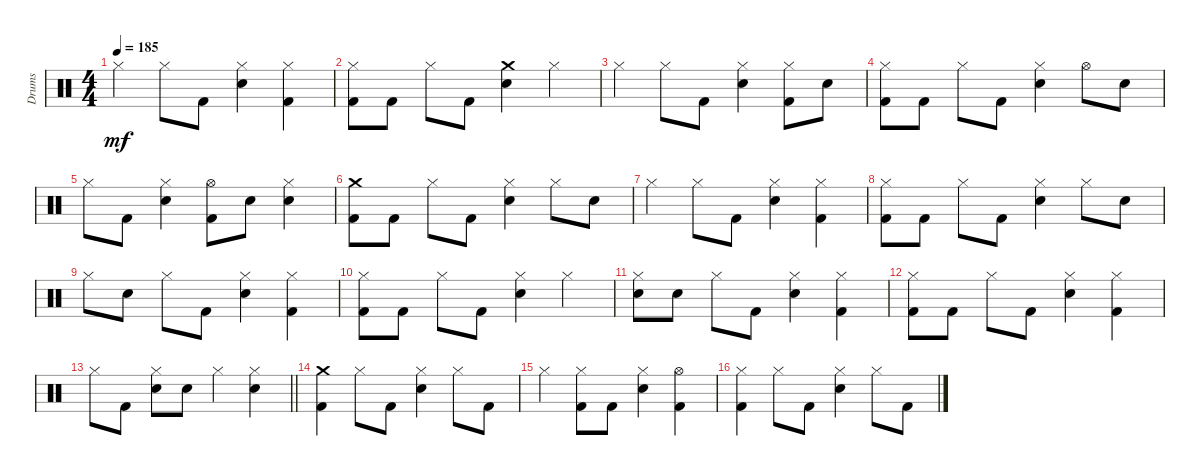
\track ("Drums" "Drums") {instrument percussion}
\staff {score}
\articulation defaults
\ts (4 4)
\tempo 185
\clef neutral
\ks c "Hi-Hat (closed)".4{dy mf} "Hi-Hat (closed)".8 "Kick (hit) 2".8
("Hi-Hat (closed)" "Snare (hit) 2").4 ("Hi-Hat (closed)" "Kick (hit) 2").4 |
("Hi-Hat (closed)" "Kick (hit) 2").8 "Kick (hit) 2".8 "Hi-Hat (closed)".8 "Kick (hit) 2".8 ("Crash medium (hit)" "Snare (hit) 2").4 "Hi-Hat (closed)".4 |
"Hi-Hat (closed)".4 "Hi-Hat (closed)".8 "Kick (hit) 2".8 ("Hi-Hat (closed)" "Snare (hit) 2").4 ("Hi-Hat (closed)" "Kick (hit) 2").8 "Snare (hit) 2".8 |
("Hi-Hat (closed)" "Kick (hit) 2").8 "Kick (hit) 2".8 "Hi-Hat (closed)".8 "Kick (hit) 2".8 ("Hi-Hat (closed)" "Snare (hit) 2").4 "Hi-Hat (open)".8 "Snare (hit) 2".8 |
"Hi-Hat (closed)".8 "Kick (hit) 2".8 ("Hi-Hat (closed)" "Snare (hit) 2").4 ("Hi-Hat (open)" "Kick (hit) 2").8 "Snare (hit) 2".8 ("Hi-Hat (closed)" "Snare (hit) 2").4 |
("Crash medium (hit)" "Kick (hit) 2").8 "Kick (hit) 2".8 "Hi-Hat (closed)".8 "Kick (hit) 2".8 ("Hi-Hat (closed)" "Snare (hit) 2").4 "Hi-Hat (closed)".8 "Snare (hit) 2".8 |
"Hi-Hat (closed)".4 "Hi-Hat (closed)".8 "Kick (hit) 2".8 ("Hi-Hat (closed)" "Snare (hit) 2").4 ("Hi-Hat (closed)" "Kick (hit) 2").4 |
("Hi-Hat (closed)" "Kick (hit) 2").8 "Kick (hit) 2".8 "Hi-Hat (closed)".8 "Kick (hit) 2".8 ("Hi-Hat (closed)" "Snare (hit) 2").4 "Hi-Hat (closed)".8 "Snare (hit) 2".8 |
"Hi-Hat (closed)".8 "Snare (hit) 2".8 "Hi-Hat (closed)".8 "Kick (hit) 2".8 ("Hi-Hat (closed)" "Snare (hit) 2").4 ("Hi-Hat (closed)" "Kick (hit) 2").4 |
("Hi-Hat (closed)" "Kick (hit) 2").8 "Kick (hit) 2".8 "Hi-Hat (closed)".8 "Kick (hit) 2".8 ("Hi-Hat (closed)" "Snare (hit) 2").4 "Hi-Hat (closed)".4 |
("Hi-Hat (closed)" "Snare (hit) 2").8 "Snare (hit) 2".8 "Hi-Hat (closed)".8 "Kick (hit) 2".8 ("Hi-Hat (closed)" "Snare (hit) 2").4 ("Hi-Hat (closed)" "Kick (hit) 2").4 |
("Hi-Hat (closed)" "Kick (hit) 2").8 "Kick (hit) 2".8 "Hi-Hat (closed)".8 "Kick (hit) 2".8 ("Hi-Hat (closed)" "Snare (hit) 2").4 ("Hi-Hat (closed)" "Kick (hit) 2").4 |
\barLineRight lightlight "Hi-Hat (closed)".8 "Kick (hit) 2".8
("Hi-Hat (closed)" "Snare (hit) 2").8 "Snare (hit) 2".8 "Hi-Hat (closed)".4 ("Hi-Hat (closed)" "Snare (hit) 2").4 |
\section ("" "")
("Crash medium (hit)" "Kick (hit) 2").4 "Hi-Hat (closed)".8 "Kick (hit) 2".8 ("Hi-Hat (closed)" "Snare (hit) 2").4 "Hi-Hat (closed)".8 "Kick (hit) 2".8 |
"Hi-Hat (closed)".4 ("Hi-Hat (closed)" "Kick (hit) 2").8 "Kick (hit) 2".8 ("Hi-Hat (closed)" "Snare (hit) 2").4 ("Hi-Hat (open)" "Kick (hit) 2").4 |
("Hi-Hat (closed)" "Kick (hit) 2").4 "Hi-Hat (closed)".8 "Kick (hit) 2".8 ("Hi-Hat (closed)" "Snare (hit) 2").4 "Hi-Hat (closed)".8 "Kick (hit) 2".8
